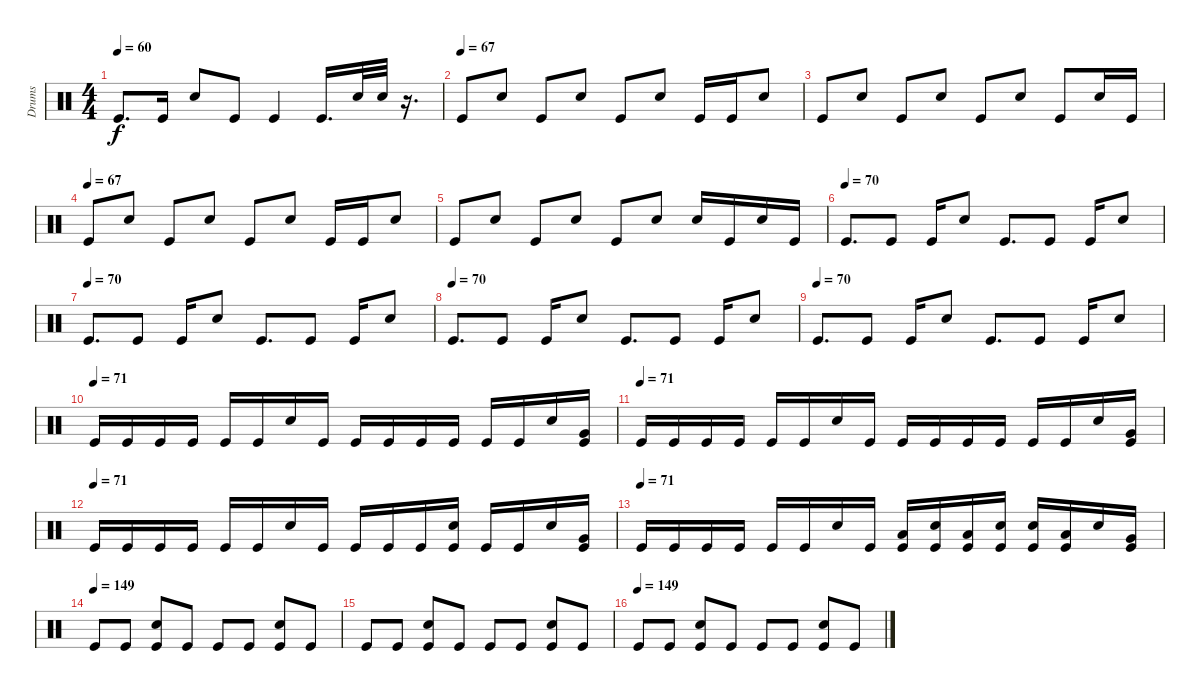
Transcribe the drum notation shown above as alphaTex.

\track ("Drums" "Drums") {instrument percussion}
\staff {score}
\articulation defaults
\ts (4 4)
\tempo 60
\clef neutral
\ks c "Kick (hit)".8{d dy f} "Kick (hit)".16 "Snare (hit) 2".8 "Kick (hit)".8 "Kick (hit)".4 "Kick (hit)".16{d} "Snare (hit) 2".32 "Snare (hit) 2".32
r.16{d} |
\tempo (67)
"Kick (hit)".8 "Snare (hit) 2".8 "Kick (hit)".8 "Snare (hit) 2".8 "Kick (hit)".8 "Snare (hit) 2".8 "Kick (hit)".16 "Kick (hit)".16 "Snare (hit) 2".8 |
"Kick (hit)".8 "Snare (hit) 2".8 "Kick (hit)".8 "Snare (hit) 2".8 "Kick (hit)".8 "Snare (hit) 2".8 "Kick (hit)".8 "Snare (hit) 2".16 "Kick (hit)".16 |
\tempo (67)
"Kick (hit)".8 "Snare (hit) 2".8 "Kick (hit)".8 "Snare (hit) 2".8 "Kick (hit)".8 "Snare (hit) 2".8 "Kick (hit)".16 "Kick (hit)".16 "Snare (hit) 2".8 |
"Kick (hit)".8 "Snare (hit) 2".8 "Kick (hit)".8 "Snare (hit) 2".8 "Kick (hit)".8 "Snare (hit) 2".8 "Snare (hit) 2".16 "Kick (hit)".16 "Snare (hit) 2".16 "Kick (hit)".16 |
\tempo (70)
"Kick (hit)".8{d} "Kick (hit)".8 "Kick (hit)".16 "Snare (hit) 2".8 "Kick (hit)".8{d} "Kick (hit)".8 "Kick (hit)".16 "Snare (hit) 2".8 |
\tempo (70)
"Kick (hit)".8{d} "Kick (hit)".8 "Kick (hit)".16 "Snare (hit) 2".8 "Kick (hit)".8{d} "Kick (hit)".8 "Kick (hit)".16 "Snare (hit) 2".8 |
\tempo (70)
"Kick (hit)".8{d} "Kick (hit)".8 "Kick (hit)".16 "Snare (hit) 2".8 "Kick (hit)".8{d} "Kick (hit)".8 "Kick (hit)".16 "Snare (hit) 2".8 |
\tempo (70)
"Kick (hit)".8{d} "Kick (hit)".8 "Kick (hit)".16 "Snare (hit) 2".8 "Kick (hit)".8{d} "Kick (hit)".8 "Kick (hit)".16 "Snare (hit) 2".8 |
\tempo (71)
"Kick (hit)".16 "Kick (hit)".16 "Kick (hit)".16 "Kick (hit)".16 "Kick (hit)".16 "Kick (hit)".16 "Snare (hit) 2".16 "Kick (hit)".16 "Kick (hit)".16 "Kick (hit)".16 "Kick (hit)".16 "Kick (hit)".16 "Kick (hit)".16 "Kick (hit)".16 "Snare (hit) 2".16 ("Very Low Tom (hit)" "Kick (hit)").16 |
\tempo (71)
"Kick (hit)".16 "Kick (hit)".16 "Kick (hit)".16 "Kick (hit)".16 "Kick (hit)".16 "Kick (hit)".16 "Snare (hit) 2".16 "Kick (hit)".16 "Kick (hit)".16 "Kick (hit)".16 "Kick (hit)".16 "Kick (hit)".16 "Kick (hit)".16 "Kick (hit)".16 "Snare (hit) 2".16 ("Very Low Tom (hit)" "Kick (hit)").16 |
\tempo (71)
"Kick (hit)".16 "Kick (hit)".16 "Kick (hit)".16 "Kick (hit)".16 "Kick (hit)".16 "Kick (hit)".16 "Snare (hit) 2".16 "Kick (hit)".16 "Kick (hit)".16 "Kick (hit)".16 "Kick (hit)".16 ("Snare (hit) 2" "Kick (hit)").16 "Kick (hit)".16 "Kick (hit)".16 "Snare (hit) 2".16 ("Very Low Tom (hit)" "Kick (hit)").16 |
\tempo (71)
"Kick (hit)".16 "Kick (hit)".16 "Kick (hit)".16 "Kick (hit)".16 "Kick (hit)".16 "Kick (hit)".16 "Snare (hit) 2".16 "Kick (hit)".16 ("Low Tom (hit)" "Kick (hit)").16 ("Snare (hit) 2" "Kick (hit)").16 ("Low Tom (hit)" "Kick (hit)").16 ("Snare (hit) 2" "Kick (hit)").16 ("Snare (hit) 2" "Kick (hit)").16 ("Low Tom (hit)" "Kick (hit)").16 "Snare (hit) 2".16 ("Very Low Tom (hit)" "Kick (hit)").16 |
\tempo (149)
"Kick (hit)".8 "Kick (hit)".8 ("Snare (hit) 2" "Kick (hit)").8 "Kick (hit)".8 "Kick (hit)".8 "Kick (hit)".8 ("Snare (hit) 2" "Kick (hit)").8 "Kick (hit)".8 |
"Kick (hit)".8 "Kick (hit)".8 ("Snare (hit) 2" "Kick (hit)").8 "Kick (hit)".8 "Kick (hit)".8 "Kick (hit)".8 ("Snare (hit) 2" "Kick (hit)").8 "Kick (hit)".8 |
\tempo (149)
"Kick (hit)".8 "Kick (hit)".8 ("Snare (hit) 2" "Kick (hit)").8 "Kick (hit)".8 "Kick (hit)".8 "Kick (hit)".8 ("Snare (hit) 2" "Kick (hit)").8 "Kick (hit)".8
